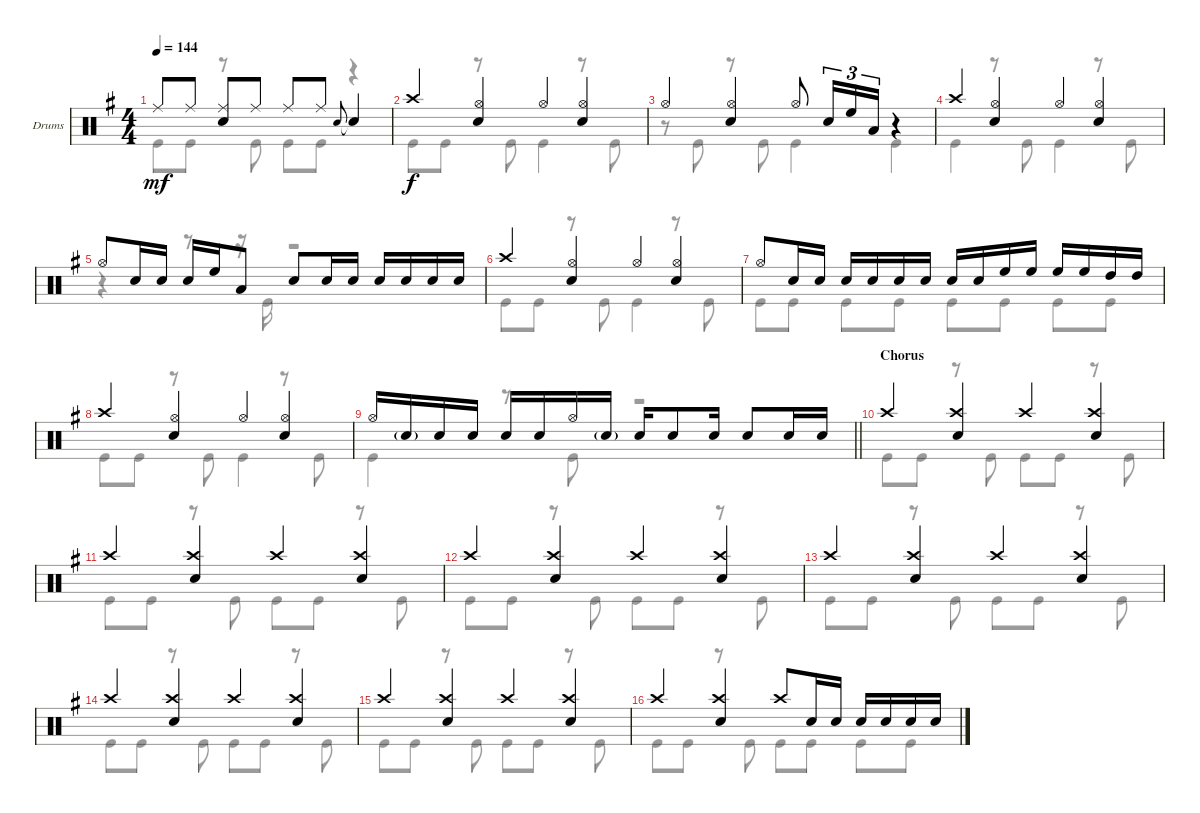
\bracketExtendMode groupsimilarinstruments
\firstSystemTrackNameOrientation horizontal
\otherSystemsTrackNameOrientation horizontal
\track ("Drumkit" "Drums") {instrument percussion}
\staff {score}
\articulation defaults
\voice
\ts (4 4)
\tempo 144
\clef neutral
\ks g "Ride (middle)".8{dy mf} "Ride (middle)".8
("Ride (middle)" "Snare (hit) 2").8 "Ride (middle)".8 "Ride (middle)".8 "Ride (middle)".8 "Snare (hit) 2".8{gr onbeat} "Snare (hit) 2"{t}.4 |
"Crash high (hit)".4{dy f} ("Hi-Hat (open)" "Snare (hit) 2").4 "Hi-Hat (open)".4 ("Hi-Hat (open)" "Snare (hit) 2").4 |
"Hi-Hat (open)".4 ("Hi-Hat (open)" "Snare (hit) 2").4 "Hi-Hat (open)".8 "Snare (hit) 2".16{tu (3 2)} "High Floor Tom (hit)".16{tu (3 2)} "Low Tom (hit)".16{tu (3 2)} r.4 |
"Crash high (hit)".4 ("Hi-Hat (open)" "Snare (hit) 2").4 "Hi-Hat (open)".4 ("Hi-Hat (open)" "Snare (hit) 2").4 |
"Hi-Hat (open)".8 "Snare (hit) 2".16 "Snare (hit) 2".16 "Snare (hit) 2".16 "High Floor Tom (hit)".16 "Low Tom (hit)".8 "Snare (hit) 2".8 "Snare (hit) 2".16 "Snare (hit) 2".16 "Snare (hit) 2".16 "Snare (hit) 2".16 "Snare (hit) 2".16 "Snare (hit) 2".16 |
"Crash high (hit)".4 ("Hi-Hat (open)" "Snare (hit) 2").4 "Hi-Hat (open)".4 ("Hi-Hat (open)" "Snare (hit) 2").4 |
"Hi-Hat (open)".8 "Snare (hit) 2".16 "Snare (hit) 2".16 "Snare (hit) 2".16 "Snare (hit) 2".16 "Snare (hit) 2".16 "Snare (hit) 2".16 "Snare (hit) 2".16 "Snare (hit) 2".16 "High Floor Tom (hit)".16 "High Floor Tom (hit)".16 "High Floor Tom (hit)".16 "High Floor Tom (hit)".16 "High Tom (hit)".16 "High Tom (hit)".16 |
"Crash high (hit)".4 ("Hi-Hat (open)" "Snare (hit) 2").4 "Hi-Hat (open)".4 ("Hi-Hat (open)" "Snare (hit) 2").4 |
\barLineRight lightlight "Hi-Hat (open)".16 "Snare (hit) 2"{g}.16 "Snare (hit) 2".16 "Snare (hit) 2".16 "Snare (hit) 2".16 "Snare (hit) 2".16 "Hi-Hat (open)".16 "Snare (hit) 2"{g}.16 "Snare (hit) 2".16 "Snare (hit) 2".8 "Snare (hit) 2".16 "Snare (hit) 2".8 "Snare (hit) 2".16 "Snare (hit) 2".16
|
\section ("" "Chorus")
"Crash high (hit)".4 ("Crash high (hit)" "Snare (hit) 2").4 "Crash high (hit)".4 ("Crash high (hit)" "Snare (hit) 2").4 |
"Crash high (hit)".4 ("Crash high (hit)" "Snare (hit) 2").4 "Crash high (hit)".4 ("Crash high (hit)" "Snare (hit) 2").4 |
"Crash high (hit)".4 ("Crash high (hit)" "Snare (hit) 2").4 "Crash high (hit)".4 ("Crash high (hit)" "Snare (hit) 2").4 |
"Crash high (hit)".4 ("Crash high (hit)" "Snare (hit) 2").4 "Crash high (hit)".4 ("Crash high (hit)" "Snare (hit) 2").4 |
"Crash high (hit)".4 ("Crash high (hit)" "Snare (hit) 2").4 "Crash high (hit)".4 ("Crash high (hit)" "Snare (hit) 2").4 |
"Crash high (hit)".4 ("Crash high (hit)" "Snare (hit) 2").4 "Crash high (hit)".4 ("Crash high (hit)" "Snare (hit) 2").4 |
"Crash high (hit)".4 ("Crash high (hit)" "Snare (hit) 2").4 "Crash high (hit)".8 "Snare (hit) 2".16 "Snare (hit) 2".16 "Snare (hit) 2".16 "Snare (hit) 2".16 "Snare (hit) 2".16 "Snare (hit) 2".16
\voice
\clef neutral
\ottava regular
\simile none
\ks g "Kick (hit)".8{dy mf} "Kick (hit)".8
r.8 "Kick (hit)".8 "Kick (hit)".8 "Kick (hit)".8 r.4 |
"Kick (hit)".8{dy f} "Kick (hit)".8 r.8 "Kick (hit)".8 "Kick (hit)".4 r.8 "Kick (hit)".8 |
r.8 "Kick (hit)".8 r.8 "Kick (hit)".8 "Kick (hit)".4 "Kick (hit)".4 |
"Kick (hit)".4 r.8 "Kick (hit)".8 "Kick (hit)".4 r.8 "Kick (hit)".8 |
r.4 r.8 r.16 "Kick (hit)".16 r.2 |
"Kick (hit)".8 "Kick (hit)".8 r.8 "Kick (hit)".8 "Kick (hit)".4 r.8 "Kick (hit)".8 |
"Kick (hit)".8 "Kick (hit)".8 "Kick (hit)".8 "Kick (hit)".8 "Kick (hit)".8 "Kick (hit)".8 "Kick (hit)".8 "Kick (hit)".8 |
"Kick (hit)".8 "Kick (hit)".8 r.8 "Kick (hit)".8 "Kick (hit)".4 r.8 "Kick (hit)".8 |
\barLineRight lightlight "Kick (hit)".4
r.8 "Kick (hit)".8 r.2 |
"Kick (hit)".8 "Kick (hit)".8 r.8 "Kick (hit)".8 "Kick (hit)".8 "Kick (hit)".8 r.8 "Kick (hit)".8 |
"Kick (hit)".8 "Kick (hit)".8 r.8 "Kick (hit)".8 "Kick (hit)".8 "Kick (hit)".8 r.8 "Kick (hit)".8 |
"Kick (hit)".8 "Kick (hit)".8 r.8 "Kick (hit)".8 "Kick (hit)".8 "Kick (hit)".8 r.8 "Kick (hit)".8 |
"Kick (hit)".8 "Kick (hit)".8 r.8 "Kick (hit)".8 "Kick (hit)".8 "Kick (hit)".8 r.8 "Kick (hit)".8 |
"Kick (hit)".8 "Kick (hit)".8 r.8 "Kick (hit)".8 "Kick (hit)".8 "Kick (hit)".8 r.8 "Kick (hit)".8 |
"Kick (hit)".8 "Kick (hit)".8 r.8 "Kick (hit)".8 "Kick (hit)".8 "Kick (hit)".8 r.8 "Kick (hit)".8 |
"Kick (hit)".8 "Kick (hit)".8 r.8 "Kick (hit)".8 "Kick (hit)".8 "Kick (hit)".8 "Kick (hit)".8 "Kick (hit)".8
